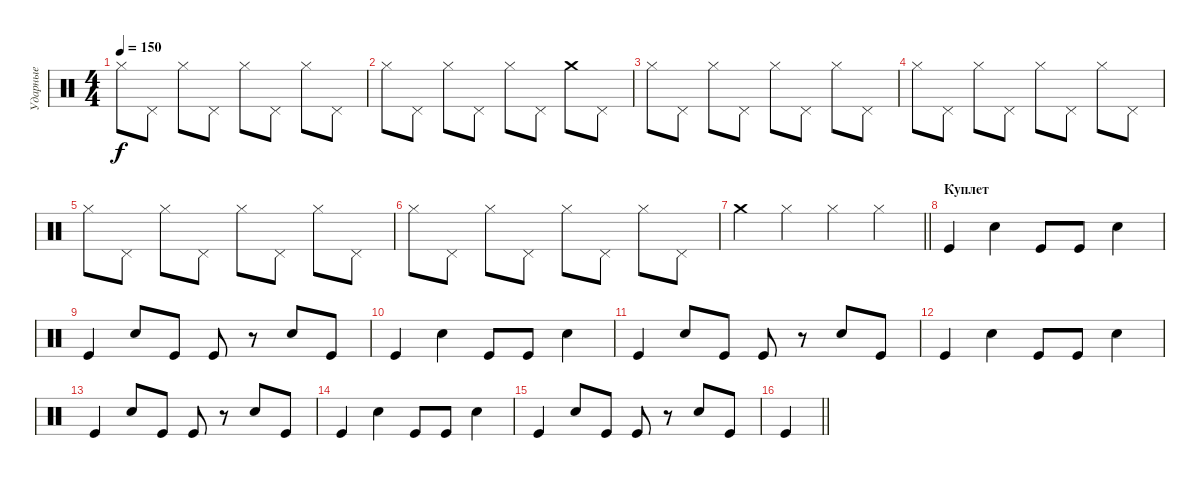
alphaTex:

\track ("Ударные" "Ударные") {instrument percussion}
\staff {score}
\articulation defaults
\ts (4 4)
\tempo 150
\clef neutral
\ks c "Hi-Hat (closed)".8{dy f} "Pedal Hi-Hat (hit)".8 "Hi-Hat (closed)".8 "Pedal Hi-Hat (hit)".8 "Hi-Hat (closed)".8 "Pedal Hi-Hat (hit)".8 "Hi-Hat (closed)".8 "Pedal Hi-Hat (hit)".8
|
"Hi-Hat (closed)".8 "Pedal Hi-Hat (hit)".8 "Hi-Hat (closed)".8 "Pedal Hi-Hat (hit)".8 "Hi-Hat (closed)".8 "Pedal Hi-Hat (hit)".8 "Crash medium (hit)".8 "Pedal Hi-Hat (hit)".8 |
"Hi-Hat (closed)".8 "Pedal Hi-Hat (hit)".8 "Hi-Hat (closed)".8 "Pedal Hi-Hat (hit)".8 "Hi-Hat (closed)".8 "Pedal Hi-Hat (hit)".8 "Hi-Hat (closed)".8 "Pedal Hi-Hat (hit)".8 |
"Hi-Hat (closed)".8 "Pedal Hi-Hat (hit)".8 "Hi-Hat (closed)".8 "Pedal Hi-Hat (hit)".8 "Hi-Hat (closed)".8 "Pedal Hi-Hat (hit)".8 "Hi-Hat (closed)".8 "Pedal Hi-Hat (hit)".8 |
"Hi-Hat (closed)".8 "Pedal Hi-Hat (hit)".8 "Hi-Hat (closed)".8 "Pedal Hi-Hat (hit)".8 "Hi-Hat (closed)".8 "Pedal Hi-Hat (hit)".8 "Hi-Hat (closed)".8 "Pedal Hi-Hat (hit)".8 |
"Hi-Hat (closed)".8 "Pedal Hi-Hat (hit)".8 "Hi-Hat (closed)".8 "Pedal Hi-Hat (hit)".8 "Hi-Hat (closed)".8 "Pedal Hi-Hat (hit)".8 "Hi-Hat (closed)".8 "Pedal Hi-Hat (hit)".8 |
\barLineRight lightlight "Crash medium (hit)".4 "Hi-Hat (closed)".4 "Hi-Hat (closed)".4 "Hi-Hat (closed)".4
|
\section ("" "Куплет")
"Kick (hit)".4 "Snare (hit) 2".4 "Kick (hit)".8 "Kick (hit)".8 "Snare (hit) 2".4 |
"Kick (hit)".4 "Snare (hit) 2".8 "Kick (hit)".8 "Kick (hit)".8 r.8 "Snare (hit) 2".8 "Kick (hit)".8 |
"Kick (hit)".4 "Snare (hit) 2".4 "Kick (hit)".8 "Kick (hit)".8 "Snare (hit) 2".4 |
"Kick (hit)".4 "Snare (hit) 2".8 "Kick (hit)".8 "Kick (hit)".8 r.8 "Snare (hit) 2".8 "Kick (hit)".8 |
"Kick (hit)".4 "Snare (hit) 2".4 "Kick (hit)".8 "Kick (hit)".8 "Snare (hit) 2".4 |
"Kick (hit)".4 "Snare (hit) 2".8 "Kick (hit)".8 "Kick (hit)".8 r.8 "Snare (hit) 2".8 "Kick (hit)".8 |
"Kick (hit)".4 "Snare (hit) 2".4 "Kick (hit)".8 "Kick (hit)".8 "Snare (hit) 2".4 |
"Kick (hit)".4 "Snare (hit) 2".8 "Kick (hit)".8 "Kick (hit)".8 r.8 "Snare (hit) 2".8 "Kick (hit)".8 |
\barLineRight lightlight "Kick (hit)".4
